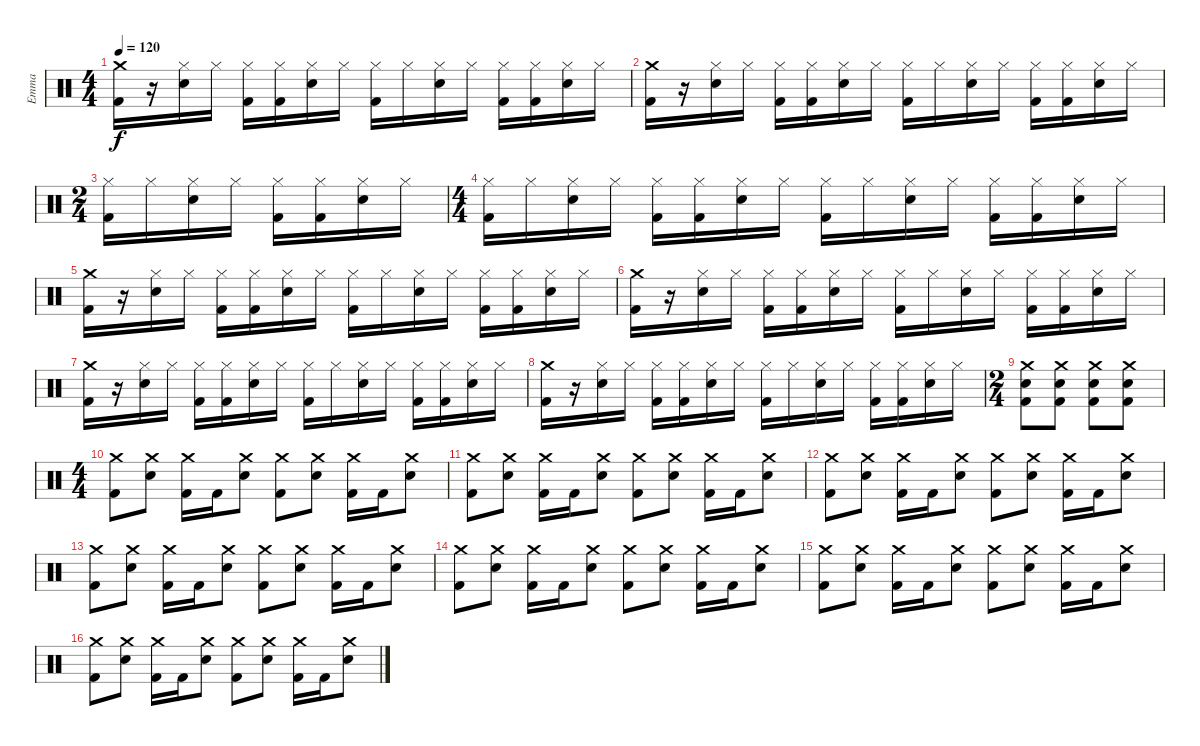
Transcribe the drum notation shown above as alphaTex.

\track ("Emma" "Emma") {instrument percussion}
\staff {score}
\articulation defaults
\ts (4 4)
\tempo 120
\clef neutral
\ks c
("Crash medium (hit)" "Kick (hit) 2").16{dy f} r.16 ("Hi-Hat (closed)" "Electric Snare (hit)").16 "Hi-Hat (closed)".16 ("Hi-Hat (closed)" "Kick (hit) 2").16 ("Hi-Hat (closed)" "Kick (hit) 2").16 ("Hi-Hat (closed)" "Electric Snare (hit)").16 "Hi-Hat (closed)".16 ("Hi-Hat (closed)" "Kick (hit) 2").16 "Hi-Hat (closed)".16 ("Hi-Hat (closed)" "Electric Snare (hit)").16 "Hi-Hat (closed)".16 ("Hi-Hat (closed)" "Kick (hit) 2").16 ("Hi-Hat (closed)" "Kick (hit) 2").16 ("Hi-Hat (closed)" "Electric Snare (hit)").16 "Hi-Hat (closed)".16 |
("Crash medium (hit)" "Kick (hit) 2").16 r.16 ("Hi-Hat (closed)" "Electric Snare (hit)").16 "Hi-Hat (closed)".16 ("Hi-Hat (closed)" "Kick (hit) 2").16 ("Hi-Hat (closed)" "Kick (hit) 2").16 ("Hi-Hat (closed)" "Electric Snare (hit)").16 "Hi-Hat (closed)".16 ("Hi-Hat (closed)" "Kick (hit) 2").16 "Hi-Hat (closed)".16 ("Hi-Hat (closed)" "Electric Snare (hit)").16 "Hi-Hat (closed)".16 ("Hi-Hat (closed)" "Kick (hit) 2").16 ("Hi-Hat (closed)" "Kick (hit) 2").16 ("Hi-Hat (closed)" "Electric Snare (hit)").16 "Hi-Hat (closed)".16 |
\ts (2 4)
("Hi-Hat (closed)" "Kick (hit) 2").16 "Hi-Hat (closed)".16 ("Hi-Hat (closed)" "Electric Snare (hit)").16 "Hi-Hat (closed)".16 ("Hi-Hat (closed)" "Kick (hit) 2").16 ("Hi-Hat (closed)" "Kick (hit) 2").16 ("Hi-Hat (closed)" "Electric Snare (hit)").16 "Hi-Hat (closed)".16 |
\ts (4 4)
("Hi-Hat (closed)" "Kick (hit) 2").16 "Hi-Hat (closed)".16 ("Hi-Hat (closed)" "Electric Snare (hit)").16 "Hi-Hat (closed)".16 ("Hi-Hat (closed)" "Kick (hit) 2").16 ("Hi-Hat (closed)" "Kick (hit) 2").16 ("Hi-Hat (closed)" "Electric Snare (hit)").16 "Hi-Hat (closed)".16 ("Hi-Hat (closed)" "Kick (hit) 2").16 "Hi-Hat (closed)".16 ("Hi-Hat (closed)" "Electric Snare (hit)").16 "Hi-Hat (closed)".16 ("Hi-Hat (closed)" "Kick (hit) 2").16 ("Hi-Hat (closed)" "Kick (hit) 2").16 ("Hi-Hat (closed)" "Electric Snare (hit)").16 "Hi-Hat (closed)".16 |
("Crash medium (hit)" "Kick (hit) 2").16 r.16 ("Hi-Hat (closed)" "Electric Snare (hit)").16 "Hi-Hat (closed)".16 ("Hi-Hat (closed)" "Kick (hit) 2").16 ("Hi-Hat (closed)" "Kick (hit) 2").16 ("Hi-Hat (closed)" "Electric Snare (hit)").16 "Hi-Hat (closed)".16 ("Hi-Hat (closed)" "Kick (hit) 2").16 "Hi-Hat (closed)".16 ("Hi-Hat (closed)" "Electric Snare (hit)").16 "Hi-Hat (closed)".16 ("Hi-Hat (closed)" "Kick (hit) 2").16 ("Hi-Hat (closed)" "Kick (hit) 2").16 ("Hi-Hat (closed)" "Electric Snare (hit)").16 "Hi-Hat (closed)".16 |
("Crash medium (hit)" "Kick (hit) 2").16 r.16 ("Hi-Hat (closed)" "Electric Snare (hit)").16 "Hi-Hat (closed)".16 ("Hi-Hat (closed)" "Kick (hit) 2").16 ("Hi-Hat (closed)" "Kick (hit) 2").16 ("Hi-Hat (closed)" "Electric Snare (hit)").16 "Hi-Hat (closed)".16 ("Hi-Hat (closed)" "Kick (hit) 2").16 "Hi-Hat (closed)".16 ("Hi-Hat (closed)" "Electric Snare (hit)").16 "Hi-Hat (closed)".16 ("Hi-Hat (closed)" "Kick (hit) 2").16 ("Hi-Hat (closed)" "Kick (hit) 2").16 ("Hi-Hat (closed)" "Electric Snare (hit)").16 "Hi-Hat (closed)".16 |
("Crash medium (hit)" "Kick (hit) 2").16 r.16 ("Hi-Hat (closed)" "Electric Snare (hit)").16 "Hi-Hat (closed)".16 ("Hi-Hat (closed)" "Kick (hit) 2").16 ("Hi-Hat (closed)" "Kick (hit) 2").16 ("Hi-Hat (closed)" "Electric Snare (hit)").16 "Hi-Hat (closed)".16 ("Hi-Hat (closed)" "Kick (hit) 2").16 "Hi-Hat (closed)".16 ("Hi-Hat (closed)" "Electric Snare (hit)").16 "Hi-Hat (closed)".16 ("Hi-Hat (closed)" "Kick (hit) 2").16 ("Hi-Hat (closed)" "Kick (hit) 2").16 ("Hi-Hat (closed)" "Electric Snare (hit)").16 "Hi-Hat (closed)".16 |
("Crash medium (hit)" "Kick (hit) 2").16 r.16 ("Hi-Hat (closed)" "Electric Snare (hit)").16 "Hi-Hat (closed)".16 ("Hi-Hat (closed)" "Kick (hit) 2").16 ("Hi-Hat (closed)" "Kick (hit) 2").16 ("Hi-Hat (closed)" "Electric Snare (hit)").16 "Hi-Hat (closed)".16 ("Hi-Hat (closed)" "Kick (hit) 2").16 "Hi-Hat (closed)".16 ("Hi-Hat (closed)" "Electric Snare (hit)").16 "Hi-Hat (closed)".16 ("Hi-Hat (closed)" "Kick (hit) 2").16 ("Hi-Hat (closed)" "Kick (hit) 2").16 ("Hi-Hat (closed)" "Electric Snare (hit)").16 "Hi-Hat (closed)".16 |
\ts (2 4)
("Crash medium (hit)" "Electric Snare (hit)" "Kick (hit) 2").8 ("Crash medium (hit)" "Electric Snare (hit)" "Kick (hit) 2").8 ("Crash medium (hit)" "Electric Snare (hit)" "Kick (hit) 2").8 ("Crash medium (hit)" "Electric Snare (hit)" "Kick (hit) 2").8 |
\ts (4 4)
("Crash medium (hit)" "Kick (hit) 2").8 ("Crash medium (hit)" "Electric Snare (hit)").8 ("Crash medium (hit)" "Kick (hit) 2").16 "Kick (hit) 2".16 ("Crash medium (hit)" "Electric Snare (hit)").8 ("Crash medium (hit)" "Kick (hit) 2").8 ("Crash medium (hit)" "Electric Snare (hit)").8 ("Crash medium (hit)" "Kick (hit) 2").16 "Kick (hit) 2".16 ("Crash medium (hit)" "Electric Snare (hit)").8 |
("Crash medium (hit)" "Kick (hit) 2").8 ("Crash medium (hit)" "Electric Snare (hit)").8 ("Crash medium (hit)" "Kick (hit) 2").16 "Kick (hit) 2".16 ("Crash medium (hit)" "Electric Snare (hit)").8 ("Crash medium (hit)" "Kick (hit) 2").8 ("Crash medium (hit)" "Electric Snare (hit)").8 ("Crash medium (hit)" "Kick (hit) 2").16 "Kick (hit) 2".16 ("Crash medium (hit)" "Electric Snare (hit)").8 |
("Crash medium (hit)" "Kick (hit) 2").8 ("Crash medium (hit)" "Electric Snare (hit)").8 ("Crash medium (hit)" "Kick (hit) 2").16 "Kick (hit) 2".16 ("Crash medium (hit)" "Electric Snare (hit)").8 ("Crash medium (hit)" "Kick (hit) 2").8 ("Crash medium (hit)" "Electric Snare (hit)").8 ("Crash medium (hit)" "Kick (hit) 2").16 "Kick (hit) 2".16 ("Crash medium (hit)" "Electric Snare (hit)").8 |
("Crash medium (hit)" "Kick (hit) 2").8 ("Crash medium (hit)" "Electric Snare (hit)").8 ("Crash medium (hit)" "Kick (hit) 2").16 "Kick (hit) 2".16 ("Crash medium (hit)" "Electric Snare (hit)").8 ("Crash medium (hit)" "Kick (hit) 2").8 ("Crash medium (hit)" "Electric Snare (hit)").8 ("Crash medium (hit)" "Kick (hit) 2").16 "Kick (hit) 2".16 ("Crash medium (hit)" "Electric Snare (hit)").8 |
("Crash medium (hit)" "Kick (hit) 2").8 ("Crash medium (hit)" "Electric Snare (hit)").8 ("Crash medium (hit)" "Kick (hit) 2").16 "Kick (hit) 2".16 ("Crash medium (hit)" "Electric Snare (hit)").8 ("Crash medium (hit)" "Kick (hit) 2").8 ("Crash medium (hit)" "Electric Snare (hit)").8 ("Crash medium (hit)" "Kick (hit) 2").16 "Kick (hit) 2".16 ("Crash medium (hit)" "Electric Snare (hit)").8 |
("Crash medium (hit)" "Kick (hit) 2").8 ("Crash medium (hit)" "Electric Snare (hit)").8 ("Crash medium (hit)" "Kick (hit) 2").16 "Kick (hit) 2".16 ("Crash medium (hit)" "Electric Snare (hit)").8 ("Crash medium (hit)" "Kick (hit) 2").8 ("Crash medium (hit)" "Electric Snare (hit)").8 ("Crash medium (hit)" "Kick (hit) 2").16 "Kick (hit) 2".16 ("Crash medium (hit)" "Electric Snare (hit)").8 |
("Crash medium (hit)" "Kick (hit) 2").8 ("Crash medium (hit)" "Electric Snare (hit)").8 ("Crash medium (hit)" "Kick (hit) 2").16 "Kick (hit) 2".16 ("Crash medium (hit)" "Electric Snare (hit)").8 ("Crash medium (hit)" "Kick (hit) 2").8 ("Crash medium (hit)" "Electric Snare (hit)").8 ("Crash medium (hit)" "Kick (hit) 2").16 "Kick (hit) 2".16 ("Crash medium (hit)" "Electric Snare (hit)").8
